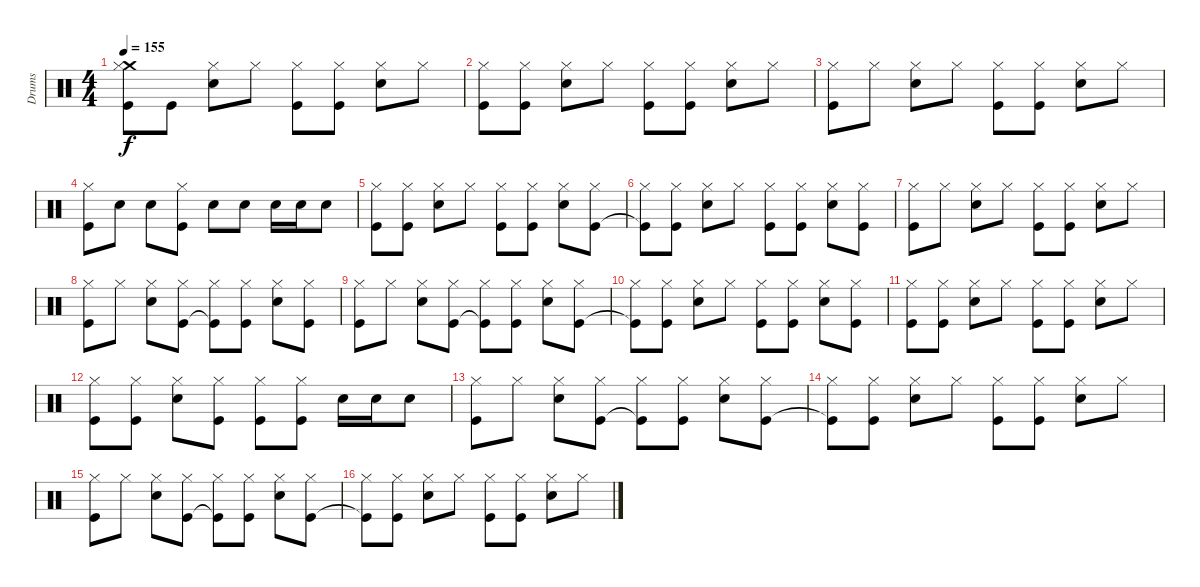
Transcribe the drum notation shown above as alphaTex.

\track ("Drums" "Drums") {instrument percussion}
\staff {score}
\articulation defaults
\ts (4 4)
\tempo 155
\clef neutral
\ks c
("Crash medium (hit)" "Hi-Hat (closed)" "Kick (hit)").8{dy f} "Kick (hit)".8 ("Hi-Hat (closed)" "Snare (hit) 2").8 "Hi-Hat (closed)".8 ("Hi-Hat (closed)" "Kick (hit)").8 ("Hi-Hat (closed)" "Kick (hit)").8 ("Hi-Hat (closed)" "Snare (hit) 2").8 "Hi-Hat (closed)".8 |
("Hi-Hat (closed)" "Kick (hit)").8 ("Hi-Hat (closed)" "Kick (hit)").8 ("Hi-Hat (closed)" "Snare (hit) 2").8 "Hi-Hat (closed)".8 ("Hi-Hat (closed)" "Kick (hit)").8 ("Hi-Hat (closed)" "Kick (hit)").8 ("Hi-Hat (closed)" "Snare (hit) 2").8 "Hi-Hat (closed)".8 |
("Hi-Hat (closed)" "Kick (hit)").8 "Hi-Hat (closed)".8 ("Hi-Hat (closed)" "Snare (hit) 2").8 "Hi-Hat (closed)".8 ("Hi-Hat (closed)" "Kick (hit)").8 ("Hi-Hat (closed)" "Kick (hit)").8 ("Hi-Hat (closed)" "Snare (hit) 2").8 "Hi-Hat (closed)".8 |
("Hi-Hat (closed)" "Kick (hit)").8 "Snare (hit) 2".8 "Snare (hit) 2".8 ("Hi-Hat (closed)" "Kick (hit)").8 "Snare (hit) 2".8 "Snare (hit) 2".8 "Snare (hit) 2".16 "Snare (hit) 2".16 "Snare (hit) 2".8 |
("Hi-Hat (closed)" "Kick (hit)").8 ("Hi-Hat (closed)" "Kick (hit)").8 ("Hi-Hat (closed)" "Snare (hit) 2").8 "Hi-Hat (closed)".8 ("Hi-Hat (closed)" "Kick (hit)").8 ("Hi-Hat (closed)" "Kick (hit)").8 ("Hi-Hat (closed)" "Snare (hit) 2").8 ("Hi-Hat (closed)" "Kick (hit)").8 |
("Hi-Hat (closed)" "Kick (hit)"{t}).8 ("Hi-Hat (closed)" "Kick (hit)").8 ("Hi-Hat (closed)" "Snare (hit) 2").8 "Hi-Hat (closed)".8 ("Hi-Hat (closed)" "Kick (hit)").8 ("Hi-Hat (closed)" "Kick (hit)").8 ("Hi-Hat (closed)" "Snare (hit) 2").8 ("Hi-Hat (closed)" "Kick (hit)").8 |
("Hi-Hat (closed)" "Kick (hit)").8 "Hi-Hat (closed)".8 ("Hi-Hat (closed)" "Snare (hit) 2").8 "Hi-Hat (closed)".8 ("Hi-Hat (closed)" "Kick (hit)").8 ("Hi-Hat (closed)" "Kick (hit)").8 ("Hi-Hat (closed)" "Snare (hit) 2").8 "Hi-Hat (closed)".8 |
("Hi-Hat (closed)" "Kick (hit)").8 "Hi-Hat (closed)".8 ("Hi-Hat (closed)" "Snare (hit) 2").8 ("Hi-Hat (closed)" "Kick (hit)").8 ("Hi-Hat (closed)" "Kick (hit)"{t}).8 ("Hi-Hat (closed)" "Kick (hit)").8 ("Hi-Hat (closed)" "Snare (hit) 2").8 ("Hi-Hat (closed)" "Kick (hit)").8 |
("Hi-Hat (closed)" "Kick (hit)").8 "Hi-Hat (closed)".8 ("Hi-Hat (closed)" "Snare (hit) 2").8 ("Hi-Hat (closed)" "Kick (hit)").8 ("Hi-Hat (closed)" "Kick (hit)"{t}).8 ("Hi-Hat (closed)" "Kick (hit)").8 ("Hi-Hat (closed)" "Snare (hit) 2").8 ("Hi-Hat (closed)" "Kick (hit)").8 |
("Hi-Hat (closed)" "Kick (hit)"{t}).8 ("Hi-Hat (closed)" "Kick (hit)").8 ("Hi-Hat (closed)" "Snare (hit) 2").8 "Hi-Hat (closed)".8 ("Hi-Hat (closed)" "Kick (hit)").8 ("Hi-Hat (closed)" "Kick (hit)").8 ("Hi-Hat (closed)" "Snare (hit) 2").8 ("Hi-Hat (closed)" "Kick (hit)").8 |
("Hi-Hat (closed)" "Kick (hit)").8 ("Hi-Hat (closed)" "Kick (hit)").8 ("Hi-Hat (closed)" "Snare (hit) 2").8 "Hi-Hat (closed)".8 ("Hi-Hat (closed)" "Kick (hit)").8 ("Hi-Hat (closed)" "Kick (hit)").8 ("Hi-Hat (closed)" "Snare (hit) 2").8 "Hi-Hat (closed)".8 |
("Hi-Hat (closed)" "Kick (hit)").8 ("Hi-Hat (closed)" "Kick (hit)").8 ("Hi-Hat (closed)" "Snare (hit) 2").8 ("Hi-Hat (closed)" "Kick (hit)").8 ("Hi-Hat (closed)" "Kick (hit)").8 ("Hi-Hat (closed)" "Kick (hit)").8 "Snare (hit) 2".16 "Snare (hit) 2".16 "Snare (hit) 2".8 |
("Hi-Hat (closed)" "Kick (hit)").8 "Hi-Hat (closed)".8 ("Hi-Hat (closed)" "Snare (hit) 2").8 ("Hi-Hat (closed)" "Kick (hit)").8 ("Hi-Hat (closed)" "Kick (hit)"{t}).8 ("Hi-Hat (closed)" "Kick (hit)").8 ("Hi-Hat (closed)" "Snare (hit) 2").8 ("Hi-Hat (closed)" "Kick (hit)").8 |
("Hi-Hat (closed)" "Kick (hit)"{t}).8 ("Hi-Hat (closed)" "Kick (hit)").8 ("Hi-Hat (closed)" "Snare (hit) 2").8 "Hi-Hat (closed)".8 ("Hi-Hat (closed)" "Kick (hit)").8 ("Hi-Hat (closed)" "Kick (hit)").8 ("Hi-Hat (closed)" "Snare (hit) 2").8 "Hi-Hat (closed)".8 |
("Hi-Hat (closed)" "Kick (hit)").8 "Hi-Hat (closed)".8 ("Hi-Hat (closed)" "Snare (hit) 2").8 ("Hi-Hat (closed)" "Kick (hit)").8 ("Hi-Hat (closed)" "Kick (hit)"{t}).8 ("Hi-Hat (closed)" "Kick (hit)").8 ("Hi-Hat (closed)" "Snare (hit) 2").8 ("Hi-Hat (closed)" "Kick (hit)").8 |
("Hi-Hat (closed)" "Kick (hit)"{t}).8 ("Hi-Hat (closed)" "Kick (hit)").8 ("Hi-Hat (closed)" "Snare (hit) 2").8 "Hi-Hat (closed)".8 ("Hi-Hat (closed)" "Kick (hit)").8 ("Hi-Hat (closed)" "Kick (hit)").8 ("Hi-Hat (closed)" "Snare (hit) 2").8 "Hi-Hat (closed)".8
